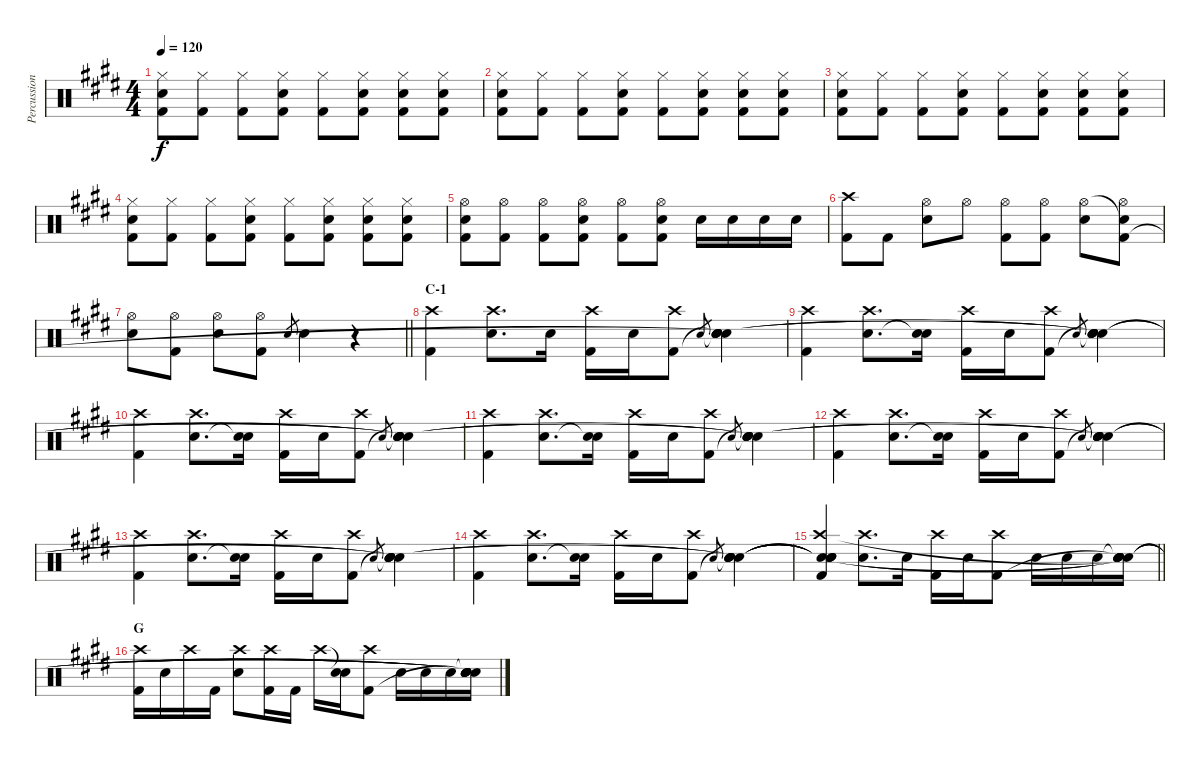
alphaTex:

\track ("Percussion" "Percussion") {instrument percussion}
\staff {score}
\articulation defaults
\ts (4 4)
\tempo 120
\clef neutral
\ks e
("Hi-Hat (closed)" "Electric Snare (hit)" "Kick (hit) 2").8{dy f} ("Hi-Hat (closed)" "Kick (hit) 2").8 ("Hi-Hat (closed)" "Kick (hit) 2").8 ("Hi-Hat (closed)" "Electric Snare (hit)" "Kick (hit) 2").8 ("Hi-Hat (closed)" "Kick (hit) 2").8 ("Hi-Hat (closed)" "Electric Snare (hit)" "Kick (hit) 2").8 ("Hi-Hat (closed)" "Electric Snare (hit)" "Kick (hit) 2").8 ("Hi-Hat (closed)" "Electric Snare (hit)" "Kick (hit) 2").8 |
("Hi-Hat (closed)" "Electric Snare (hit)" "Kick (hit) 2").8 ("Hi-Hat (closed)" "Kick (hit) 2").8 ("Hi-Hat (closed)" "Kick (hit) 2").8 ("Hi-Hat (closed)" "Electric Snare (hit)" "Kick (hit) 2").8 ("Hi-Hat (closed)" "Kick (hit) 2").8 ("Hi-Hat (closed)" "Electric Snare (hit)" "Kick (hit) 2").8 ("Hi-Hat (closed)" "Electric Snare (hit)" "Kick (hit) 2").8 ("Hi-Hat (closed)" "Electric Snare (hit)" "Kick (hit) 2").8 |
("Hi-Hat (closed)" "Electric Snare (hit)" "Kick (hit) 2").8 ("Hi-Hat (closed)" "Kick (hit) 2").8 ("Hi-Hat (closed)" "Kick (hit) 2").8 ("Hi-Hat (closed)" "Electric Snare (hit)" "Kick (hit) 2").8 ("Hi-Hat (closed)" "Kick (hit) 2").8 ("Hi-Hat (closed)" "Electric Snare (hit)" "Kick (hit) 2").8 ("Hi-Hat (closed)" "Electric Snare (hit)" "Kick (hit) 2").8 ("Hi-Hat (closed)" "Electric Snare (hit)" "Kick (hit) 2").8 |
("Hi-Hat (closed)" "Electric Snare (hit)" "Kick (hit) 2").8 ("Hi-Hat (closed)" "Kick (hit) 2").8 ("Hi-Hat (closed)" "Kick (hit) 2").8 ("Hi-Hat (closed)" "Electric Snare (hit)" "Kick (hit) 2").8 ("Hi-Hat (closed)" "Kick (hit) 2").8 ("Hi-Hat (closed)" "Electric Snare (hit)" "Kick (hit) 2").8 ("Hi-Hat (closed)" "Electric Snare (hit)" "Kick (hit) 2").8 ("Hi-Hat (closed)" "Electric Snare (hit)" "Kick (hit) 2").8 |
("Hi-Hat (open)" "Electric Snare (hit)" "Kick (hit) 2").8 ("Hi-Hat (open)" "Kick (hit) 2").8 ("Hi-Hat (open)" "Kick (hit) 2").8 ("Hi-Hat (open)" "Electric Snare (hit)" "Kick (hit) 2").8 ("Hi-Hat (open)" "Kick (hit) 2").8 ("Hi-Hat (open)" "Electric Snare (hit)" "Kick (hit) 2").8 "Electric Snare (hit)".16 "Electric Snare (hit)".16 "Electric Snare (hit)".16 "Electric Snare (hit)".16 |
("Crash high (hit)" "Kick (hit) 2").8 "Kick (hit) 2".8 ("Hi-Hat (open)" "Electric Snare (hit)").8 "Hi-Hat (open)".8 ("Hi-Hat (open)" "Kick (hit) 2").8 ("Hi-Hat (open)" "Kick (hit) 2").8 ("Hi-Hat (open)" "Electric Snare (hit)").8 ("Snare (hit)"{t} "Hi-Hat (open)" "Kick (hit) 2").8 |
\barLineRight lightlight
("Hi-Hat (open)" "Electric Snare (hit)").8 ("Hi-Hat (open)" "Kick (hit) 2").8 ("Hi-Hat (open)" "Electric Snare (hit)").8 ("Hi-Hat (open)" "Kick (hit) 2").8 "Electric Snare (hit)".8{gr} "Electric Snare (hit)".4 r.4 |
\section ("" "C-1")
("Crash high (hit)" "Kick (hit) 2").4 ("Crash high (hit)" "Electric Snare (hit)").8{d} "Electric Snare (hit)".16 ("Crash high (hit)" "Kick (hit) 2").16 "Electric Snare (hit)".16 ("Crash high (hit)" "Kick (hit) 2").8 "Electric Snare (hit)".8{gr} ("Snare (hit)"{t} "Snare (hit)"{t} "Snare (hit)"{t} "Snare (hit)" "Electric Snare (hit)").4 |
("Crash high (hit)" "Kick (hit) 2").4 ("Crash high (hit)" "Electric Snare (hit)").8{d} ("Electric Snare (hit)" "Snare (hit)"{t}).16 ("Crash high (hit)" "Kick (hit) 2").16 "Electric Snare (hit)".16 ("Crash high (hit)" "Kick (hit) 2").8 "Electric Snare (hit)".8{gr} ("Snare (hit)"{t} "Snare (hit)"{t} "Snare (hit)"{t} "Snare (hit)"{t} "Electric Snare (hit)").4 |
("Crash high (hit)" "Kick (hit) 2").4 ("Crash high (hit)" "Electric Snare (hit)").8{d} ("Electric Snare (hit)" "Snare (hit)"{t}).16 ("Crash high (hit)" "Kick (hit) 2").16 "Electric Snare (hit)".16 ("Crash high (hit)" "Kick (hit) 2").8 "Electric Snare (hit)".8{gr} ("Snare (hit)"{t} "Snare (hit)"{t} "Snare (hit)"{t} "Snare (hit)"{t} "Electric Snare (hit)").4 |
("Crash high (hit)" "Kick (hit) 2").4 ("Crash high (hit)" "Electric Snare (hit)").8{d} ("Electric Snare (hit)" "Snare (hit)"{t}).16 ("Crash high (hit)" "Kick (hit) 2").16 "Electric Snare (hit)".16 ("Crash high (hit)" "Kick (hit) 2").8 "Electric Snare (hit)".8{gr} ("Snare (hit)"{t} "Snare (hit)"{t} "Snare (hit)"{t} "Snare (hit)"{t} "Electric Snare (hit)").4 |
("Crash high (hit)" "Kick (hit) 2").4 ("Crash high (hit)" "Electric Snare (hit)").8{d} ("Electric Snare (hit)" "Snare (hit)"{t}).16 ("Crash high (hit)" "Kick (hit) 2").16 "Electric Snare (hit)".16 ("Crash high (hit)" "Kick (hit) 2").8 "Electric Snare (hit)".8{gr} ("Snare (hit)"{t} "Snare (hit)"{t} "Snare (hit)"{t} "Snare (hit)"{t} "Electric Snare (hit)").4 |
("Crash high (hit)" "Kick (hit) 2").4 ("Crash high (hit)" "Electric Snare (hit)").8{d} ("Electric Snare (hit)" "Snare (hit)"{t}).16 ("Crash high (hit)" "Kick (hit) 2").16 "Electric Snare (hit)".16 ("Crash high (hit)" "Kick (hit) 2").8 "Electric Snare (hit)".8{gr} ("Snare (hit)"{t} "Snare (hit)"{t} "Snare (hit)"{t} "Snare (hit)"{t} "Electric Snare (hit)").4 |
("Crash high (hit)" "Kick (hit) 2").4 ("Crash high (hit)" "Electric Snare (hit)").8{d} ("Electric Snare (hit)" "Snare (hit)"{t}).16 ("Crash high (hit)" "Kick (hit) 2").16 "Electric Snare (hit)".16 ("Crash high (hit)" "Kick (hit) 2").8 "Electric Snare (hit)".8{gr} ("Snare (hit)"{t} "Snare (hit)"{t} "Snare (hit)"{t} "Snare (hit)"{t} "Electric Snare (hit)").4 |
\barLineRight lightlight
("Snare (hit)"{t} "Snare (hit)"{t} "Snare (hit)"{t} "Snare (hit)"{t} "Crash high (hit)" "Kick (hit) 2").4 ("Crash high (hit)" "Electric Snare (hit)").8{d} "Electric Snare (hit)".16 ("Crash high (hit)" "Kick (hit) 2").16 "Electric Snare (hit)".16 ("Crash high (hit)" "Kick (hit) 2").8 "Electric Snare (hit)".16 "Electric Snare (hit)".16 "Electric Snare (hit)".16 ("Snare (hit)"{t} "Snare (hit)"{t} "Snare (hit)"{t} "Snare (hit)"{t} "Snare (hit)"{t} "Electric Snare (hit)").16 |
\section ("" "G")
("Crash high (hit)" "Kick (hit) 2").16 "Electric Snare (hit)".16 "Crash high (hit)".16 "Kick (hit) 2".16 ("Crash high (hit)" "Electric Snare (hit)").8 ("Crash high (hit)" "Kick (hit) 2").16 "Kick (hit) 2".16 "Crash high (hit)".16 ("Snare (hit)"{t} "Electric Snare (hit)").16 ("Crash high (hit)" "Kick (hit) 2").8 "Electric Snare (hit)".16 "Electric Snare (hit)".16 "Electric Snare (hit)".16 ("Snare (hit)"{t} "Snare (hit)"{t} "Snare (hit)"{t} "Snare (hit)"{t} "Snare (hit)"{t} "Electric Snare (hit)").16
